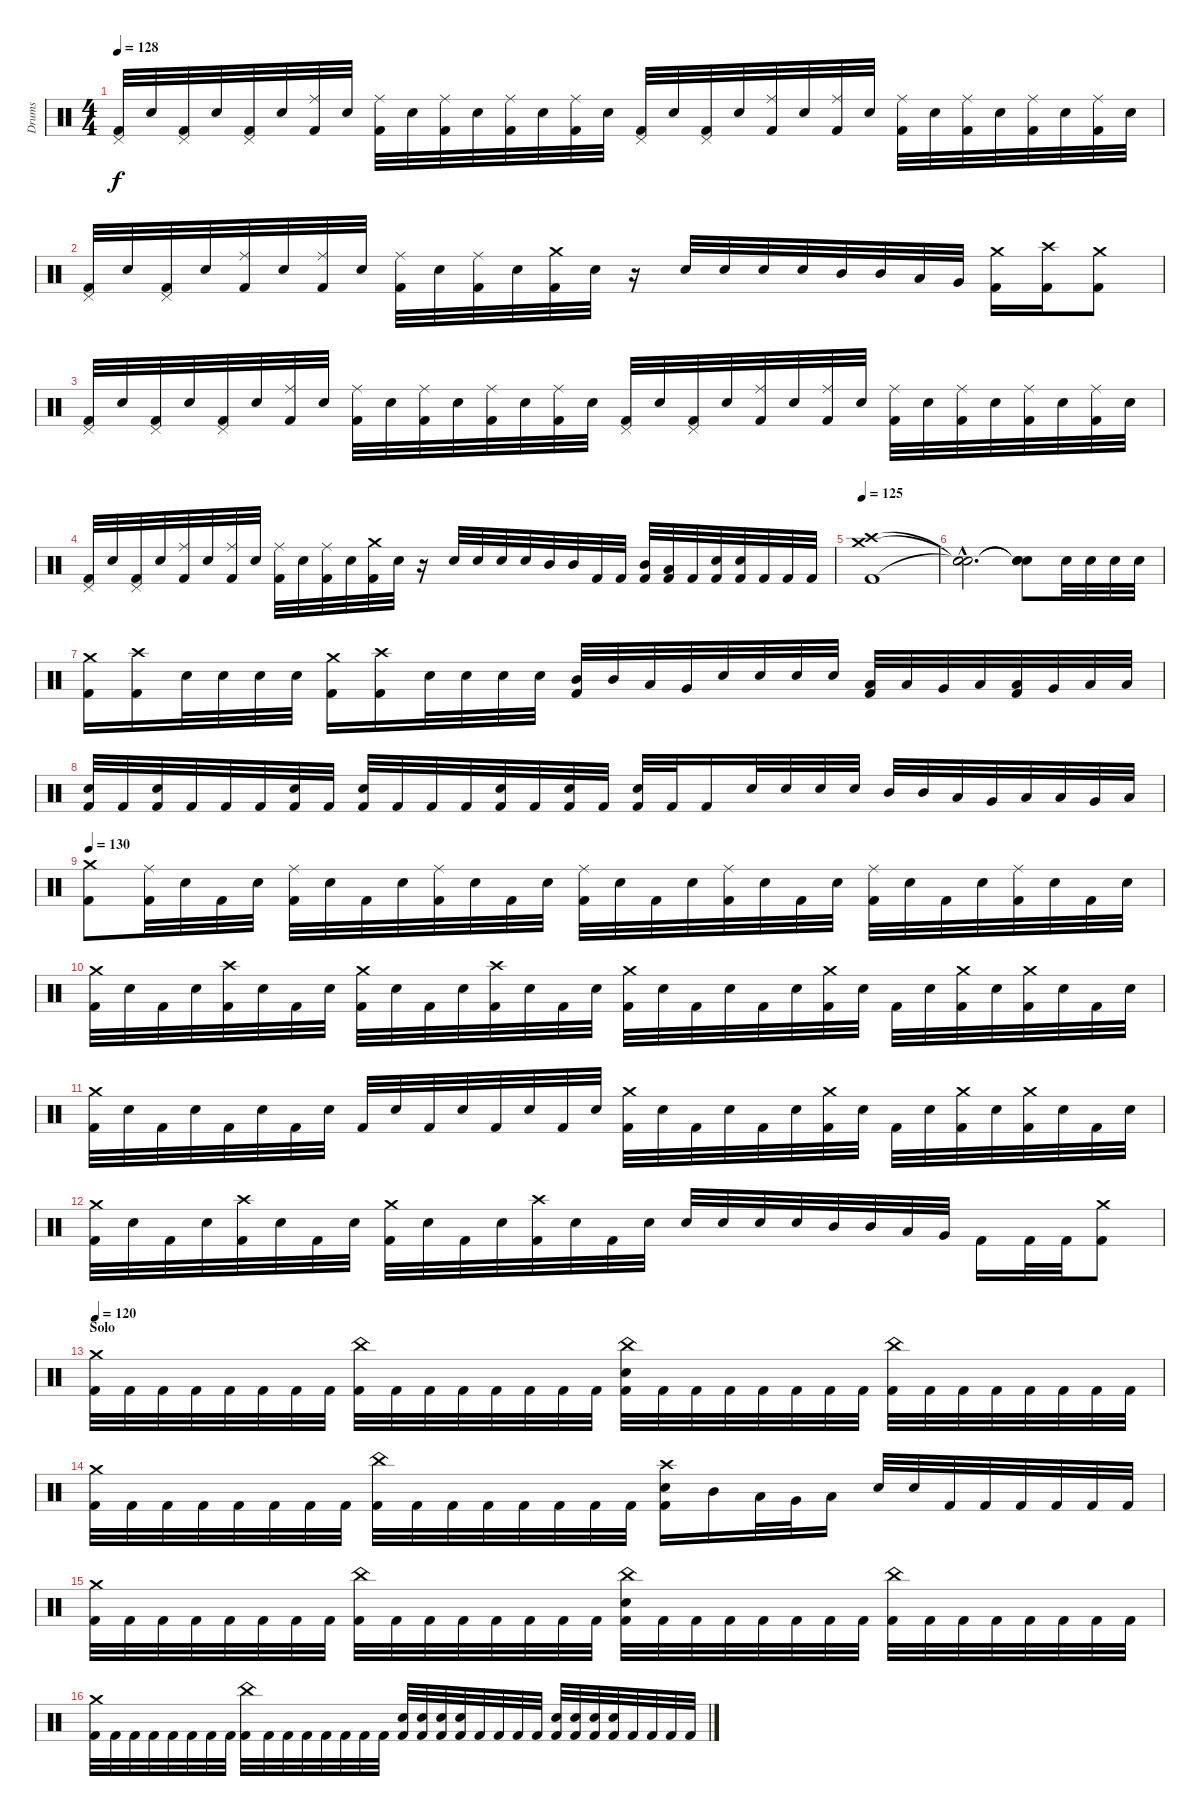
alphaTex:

\track ("Drums" "Drums") {instrument percussion}
\staff {score}
\articulation defaults
\ts (4 4)
\tempo 128
\clef neutral
\ks c
("Pedal Hi-Hat (hit)" "Kick (hit) 2").32{dy f} "Electric Snare (hit)".32 ("Pedal Hi-Hat (hit)" "Kick (hit) 2").32 "Electric Snare (hit)".32 ("Pedal Hi-Hat (hit)" "Kick (hit) 2").32 "Electric Snare (hit)".32 ("Ride (middle)" "Kick (hit) 2").32 "Electric Snare (hit)".32 ("Ride (middle)" "Kick (hit) 2").32 "Electric Snare (hit)".32 ("Ride (middle)" "Kick (hit) 2").32 "Electric Snare (hit)".32 ("Ride (middle)" "Kick (hit) 2").32 "Electric Snare (hit)".32 ("Ride (middle)" "Kick (hit) 2").32 "Electric Snare (hit)".32 ("Pedal Hi-Hat (hit)" "Kick (hit) 2").32 "Electric Snare (hit)".32 ("Pedal Hi-Hat (hit)" "Kick (hit) 2").32 "Electric Snare (hit)".32 ("Ride (middle)" "Kick (hit) 2").32 "Electric Snare (hit)".32 ("Ride (middle)" "Kick (hit) 2").32 "Electric Snare (hit)".32 ("Ride (middle)" "Kick (hit) 2").32 "Electric Snare (hit)".32 ("Ride (middle)" "Kick (hit) 2").32 "Electric Snare (hit)".32 ("Ride (middle)" "Kick (hit) 2").32 "Electric Snare (hit)".32 ("Ride (middle)" "Kick (hit) 2").32 "Electric Snare (hit)".32 |
("Pedal Hi-Hat (hit)" "Kick (hit) 2").32 "Electric Snare (hit)".32 ("Pedal Hi-Hat (hit)" "Kick (hit) 2").32 "Electric Snare (hit)".32 ("Ride (middle)" "Kick (hit) 2").32 "Electric Snare (hit)".32 ("Ride (middle)" "Kick (hit) 2").32 "Electric Snare (hit)".32 ("Ride (middle)" "Kick (hit) 2").32 "Electric Snare (hit)".32 ("Ride (middle)" "Kick (hit) 2").32 "Electric Snare (hit)".32 ("Crash medium (hit)" "Kick (hit) 2").32 "Electric Snare (hit)".32 r.16 "Electric Snare (hit)".32 "Electric Snare (hit)".32 "Electric Snare (hit)".32 "Electric Snare (hit)".32 "Mid Tom (hit)".32 "Mid Tom (hit)".32 "Low Tom (hit)".32 "Very Low Tom (hit)".32 ("Crash medium (hit)" "Kick (hit) 2").16 ("Crash high (hit)" "Kick (hit) 2").16 ("Crash medium (hit)" "Kick (hit) 2").8 |
("Pedal Hi-Hat (hit)" "Kick (hit) 2").32 "Electric Snare (hit)".32 ("Pedal Hi-Hat (hit)" "Kick (hit) 2").32 "Electric Snare (hit)".32 ("Pedal Hi-Hat (hit)" "Kick (hit) 2").32 "Electric Snare (hit)".32 ("Ride (middle)" "Kick (hit) 2").32 "Electric Snare (hit)".32 ("Ride (middle)" "Kick (hit) 2").32 "Electric Snare (hit)".32 ("Ride (middle)" "Kick (hit) 2").32 "Electric Snare (hit)".32 ("Ride (middle)" "Kick (hit) 2").32 "Electric Snare (hit)".32 ("Ride (middle)" "Kick (hit) 2").32 "Electric Snare (hit)".32 ("Pedal Hi-Hat (hit)" "Kick (hit) 2").32 "Electric Snare (hit)".32 ("Pedal Hi-Hat (hit)" "Kick (hit) 2").32 "Electric Snare (hit)".32 ("Ride (middle)" "Kick (hit) 2").32 "Electric Snare (hit)".32 ("Ride (middle)" "Kick (hit) 2").32 "Electric Snare (hit)".32 ("Ride (middle)" "Kick (hit) 2").32 "Electric Snare (hit)".32 ("Ride (middle)" "Kick (hit) 2").32 "Electric Snare (hit)".32 ("Ride (middle)" "Kick (hit) 2").32 "Electric Snare (hit)".32 ("Ride (middle)" "Kick (hit) 2").32 "Electric Snare (hit)".32 |
("Pedal Hi-Hat (hit)" "Kick (hit) 2").32 "Electric Snare (hit)".32 ("Pedal Hi-Hat (hit)" "Kick (hit) 2").32 "Electric Snare (hit)".32 ("Ride (middle)" "Kick (hit) 2").32 "Electric Snare (hit)".32 ("Ride (middle)" "Kick (hit) 2").32 "Electric Snare (hit)".32 ("Ride (middle)" "Kick (hit) 2").32 "Electric Snare (hit)".32 ("Ride (middle)" "Kick (hit) 2").32 "Electric Snare (hit)".32 ("Crash medium (hit)" "Kick (hit) 2").32 "Electric Snare (hit)".32 r.16 "Electric Snare (hit)".32 "Electric Snare (hit)".32 "Electric Snare (hit)".32 "Electric Snare (hit)".32 "Mid Tom (hit)".32 "Mid Tom (hit)".32 "Kick (hit) 2".32 "Kick (hit) 2".32 ("Mid Tom (hit)" "Kick (hit) 2").32 ("Low Tom (hit)" "Kick (hit) 2").32 "Kick (hit) 2".32 ("Electric Snare (hit)" "Kick (hit) 2").32 ("Electric Snare (hit)" "Kick (hit) 2").32 "Kick (hit) 2".32 "Kick (hit) 2".32 "Kick (hit) 2".32 |
\section ("" "")
\tempo 125
("Crash medium (hit)" "Crash high (hit)" "Kick (hit) 2").1 |
("Snare (hit)"{hac t} "Snare (hit)"{hac t} "Snare (hit)"{hac t}).2{d} ("Snare (hit)"{t} "Snare (hit)"{t} "Snare (hit)"{t}).8 "Electric Snare (hit)".32 "Electric Snare (hit)".32 "Electric Snare (hit)".32 "Electric Snare (hit)".32 |
("Crash medium (hit)" "Kick (hit) 2").16 ("Crash high (hit)" "Kick (hit) 2").16 "Electric Snare (hit)".32 "Electric Snare (hit)".32 "Electric Snare (hit)".32 "Electric Snare (hit)".32 ("Crash medium (hit)" "Kick (hit) 2").16 ("Crash high (hit)" "Kick (hit) 2").16 "Electric Snare (hit)".32 "Electric Snare (hit)".32 "Electric Snare (hit)".32 "Electric Snare (hit)".32 ("Mid Tom (hit)" "Kick (hit) 2").32 "Mid Tom (hit)".32 "Low Tom (hit)".32 "Very Low Tom (hit)".32 "Electric Snare (hit)".32 "Electric Snare (hit)".32 "Electric Snare (hit)".32 "Electric Snare (hit)".32 ("Low Tom (hit)" "Kick (hit) 2").32 "Low Tom (hit)".32 "Very Low Tom (hit)".32 "Low Floor Tom (hit)".32 ("Low Tom (hit)" "Kick (hit) 2").32 "Very Low Tom (hit)".32 "Low Floor Tom (hit)".32 "Low Floor Tom (hit)".32 |
("Electric Snare (hit)" "Kick (hit) 2").32 "Kick (hit) 2".32 ("Electric Snare (hit)" "Kick (hit) 2").32 "Kick (hit) 2".32 "Kick (hit) 2".32 "Kick (hit) 2".32 ("Electric Snare (hit)" "Kick (hit) 2").32 "Kick (hit) 2".32 ("Electric Snare (hit)" "Kick (hit) 2").32 "Kick (hit) 2".32 "Kick (hit) 2".32 "Kick (hit) 2".32 ("Electric Snare (hit)" "Kick (hit) 2").32 "Kick (hit) 2".32 ("Electric Snare (hit)" "Kick (hit) 2").32 "Kick (hit) 2".32 ("Electric Snare (hit)" "Kick (hit) 2").32 "Kick (hit) 2".32 "Kick (hit) 2".16 "Electric Snare (hit)".32 "Electric Snare (hit)".32 "Electric Snare (hit)".32 "Electric Snare (hit)".32 "Mid Tom (hit)".32 "Mid Tom (hit)".32 "Low Tom (hit)".32 "Very Low Tom (hit)".32 "Low Tom (hit)".32 "Low Tom (hit)".32 "Very Low Tom (hit)".32 "Low Floor Tom (hit)".32 |
\section ("" "")
\tempo 130
("Crash medium (hit)" "Kick (hit) 2").8 ("Ride (middle)" "Kick (hit) 2").32 "Electric Snare (hit)".32 "Kick (hit) 2".32 "Electric Snare (hit)".32 ("Ride (middle)" "Kick (hit) 2").32 "Electric Snare (hit)".32 "Kick (hit) 2".32 "Electric Snare (hit)".32 ("Ride (middle)" "Kick (hit) 2").32 "Electric Snare (hit)".32 "Kick (hit) 2".32 "Electric Snare (hit)".32 ("Ride (middle)" "Kick (hit) 2").32 "Electric Snare (hit)".32 "Kick (hit) 2".32 "Electric Snare (hit)".32 ("Ride (middle)" "Kick (hit) 2").32 "Electric Snare (hit)".32 "Kick (hit) 2".32 "Electric Snare (hit)".32 ("Ride (middle)" "Kick (hit) 2").32 "Electric Snare (hit)".32 "Kick (hit) 2".32 "Electric Snare (hit)".32 ("Ride (middle)" "Kick (hit) 2").32 "Electric Snare (hit)".32 "Kick (hit) 2".32 "Electric Snare (hit)".32 |
("Crash medium (hit)" "Kick (hit) 2").32 "Electric Snare (hit)".32 "Kick (hit) 2".32 "Electric Snare (hit)".32 ("Crash high (hit)" "Kick (hit) 2").32 "Electric Snare (hit)".32 "Kick (hit) 2".32 "Electric Snare (hit)".32 ("Crash medium (hit)" "Kick (hit) 2").32 "Electric Snare (hit)".32 "Kick (hit) 2".32 "Electric Snare (hit)".32 ("Crash high (hit)" "Kick (hit) 2").32 "Electric Snare (hit)".32 "Kick (hit) 2".32 "Electric Snare (hit)".32 ("Crash medium (hit)" "Kick (hit) 2").32 "Electric Snare (hit)".32 "Kick (hit) 2".32 "Electric Snare (hit)".32 "Kick (hit) 2".32 "Electric Snare (hit)".32 ("Crash medium (hit)" "Kick (hit) 2").32 "Electric Snare (hit)".32 "Kick (hit) 2".32 "Electric Snare (hit)".32 ("Crash medium (hit)" "Kick (hit) 2").32 "Electric Snare (hit)".32 ("Crash medium (hit)" "Kick (hit) 2").32 "Electric Snare (hit)".32 "Kick (hit) 2".32 "Electric Snare (hit)".32 |
("Crash medium (hit)" "Kick (hit) 2").32 "Electric Snare (hit)".32 "Kick (hit) 2".32 "Electric Snare (hit)".32 "Kick (hit) 2".32 "Electric Snare (hit)".32 "Kick (hit) 2".32 "Electric Snare (hit)".32 "Kick (hit) 2".32 "Electric Snare (hit)".32 "Kick (hit) 2".32 "Electric Snare (hit)".32 "Kick (hit) 2".32 "Electric Snare (hit)".32 "Kick (hit) 2".32 "Electric Snare (hit)".32 ("Crash medium (hit)" "Kick (hit) 2").32 "Electric Snare (hit)".32 "Kick (hit) 2".32 "Electric Snare (hit)".32 "Kick (hit) 2".32 "Electric Snare (hit)".32 ("Crash medium (hit)" "Kick (hit) 2").32 "Electric Snare (hit)".32 "Kick (hit) 2".32 "Electric Snare (hit)".32 ("Crash medium (hit)" "Kick (hit) 2").32 "Electric Snare (hit)".32 ("Crash medium (hit)" "Kick (hit) 2").32 "Electric Snare (hit)".32 "Kick (hit) 2".32 "Electric Snare (hit)".32 |
("Crash medium (hit)" "Kick (hit) 2").32 "Electric Snare (hit)".32 "Kick (hit) 2".32 "Electric Snare (hit)".32 ("Crash high (hit)" "Kick (hit) 2").32 "Electric Snare (hit)".32 "Kick (hit) 2".32 "Electric Snare (hit)".32 ("Crash medium (hit)" "Kick (hit) 2").32 "Electric Snare (hit)".32 "Kick (hit) 2".32 "Electric Snare (hit)".32 ("Crash high (hit)" "Kick (hit) 2").32 "Electric Snare (hit)".32 "Kick (hit) 2".32 "Electric Snare (hit)".32 "Electric Snare (hit)".32 "Electric Snare (hit)".32 "Electric Snare (hit)".32 "Electric Snare (hit)".32 "Mid Tom (hit)".32 "Mid Tom (hit)".32 "Low Tom (hit)".32 "Very Low Tom (hit)".32 "Kick (hit) 2".16 "Kick (hit) 2".32 "Kick (hit) 2".32 ("Crash medium (hit)" "Kick (hit) 2").8 |
\section ("" "Solo")
\tempo 120
("Crash medium (hit)" "Kick (hit) 2").32 "Kick (hit) 2".32 "Kick (hit) 2".32 "Kick (hit) 2".32 "Kick (hit) 2".32 "Kick (hit) 2".32 "Kick (hit) 2".32 "Kick (hit) 2".32 ("China (hit)" "Kick (hit) 2").32 "Kick (hit) 2".32 "Kick (hit) 2".32 "Kick (hit) 2".32 "Kick (hit) 2".32 "Kick (hit) 2".32 "Kick (hit) 2".32 "Kick (hit) 2".32 ("China (hit)" "Electric Snare (hit)" "Kick (hit) 2").32 "Kick (hit) 2".32 "Kick (hit) 2".32 "Kick (hit) 2".32 "Kick (hit) 2".32 "Kick (hit) 2".32 "Kick (hit) 2".32 "Kick (hit) 2".32 ("China (hit)" "Kick (hit) 2").32 "Kick (hit) 2".32 "Kick (hit) 2".32 "Kick (hit) 2".32 "Kick (hit) 2".32 "Kick (hit) 2".32 "Kick (hit) 2".32 "Kick (hit) 2".32 |
("Crash medium (hit)" "Kick (hit) 2").32 "Kick (hit) 2".32 "Kick (hit) 2".32 "Kick (hit) 2".32 "Kick (hit) 2".32 "Kick (hit) 2".32 "Kick (hit) 2".32 "Kick (hit) 2".32 ("China (hit)" "Kick (hit) 2").32 "Kick (hit) 2".32 "Kick (hit) 2".32 "Kick (hit) 2".32 "Kick (hit) 2".32 "Kick (hit) 2".32 "Kick (hit) 2".32 "Kick (hit) 2".32 ("Crash high (hit)" "Electric Snare (hit)" "Kick (hit) 2").16 "Mid Tom (hit)".16 "Low Tom (hit)".32 "Very Low Tom (hit)".32 "Low Floor Tom (hit)".16 "Electric Snare (hit)".32 "Electric Snare (hit)".32 "Kick (hit) 2".32 "Kick (hit) 2".32 "Kick (hit) 2".32 "Kick (hit) 2".32 "Kick (hit) 2".32 "Kick (hit) 2".32 |
("Crash medium (hit)" "Kick (hit) 2").32 "Kick (hit) 2".32 "Kick (hit) 2".32 "Kick (hit) 2".32 "Kick (hit) 2".32 "Kick (hit) 2".32 "Kick (hit) 2".32 "Kick (hit) 2".32 ("China (hit)" "Kick (hit) 2").32 "Kick (hit) 2".32 "Kick (hit) 2".32 "Kick (hit) 2".32 "Kick (hit) 2".32 "Kick (hit) 2".32 "Kick (hit) 2".32 "Kick (hit) 2".32 ("China (hit)" "Electric Snare (hit)" "Kick (hit) 2").32 "Kick (hit) 2".32 "Kick (hit) 2".32 "Kick (hit) 2".32 "Kick (hit) 2".32 "Kick (hit) 2".32 "Kick (hit) 2".32 "Kick (hit) 2".32 ("China (hit)" "Kick (hit) 2").32 "Kick (hit) 2".32 "Kick (hit) 2".32 "Kick (hit) 2".32 "Kick (hit) 2".32 "Kick (hit) 2".32 "Kick (hit) 2".32 "Kick (hit) 2".32 |
("Crash medium (hit)" "Kick (hit) 2").32 "Kick (hit) 2".32 "Kick (hit) 2".32 "Kick (hit) 2".32 "Kick (hit) 2".32 "Kick (hit) 2".32 "Kick (hit) 2".32 "Kick (hit) 2".32 ("China (hit)" "Kick (hit) 2").32 "Kick (hit) 2".32 "Kick (hit) 2".32 "Kick (hit) 2".32 "Kick (hit) 2".32 "Kick (hit) 2".32 "Kick (hit) 2".32 "Kick (hit) 2".32 ("Electric Snare (hit)" "Kick (hit) 2").32 ("Electric Snare (hit)" "Kick (hit) 2").32 ("Electric Snare (hit)" "Kick (hit) 2").32 ("Electric Snare (hit)" "Kick (hit) 2").32 "Kick (hit) 2".32 "Kick (hit) 2".32 "Kick (hit) 2".32 "Kick (hit) 2".32 ("Electric Snare (hit)" "Kick (hit) 2").32 ("Electric Snare (hit)" "Kick (hit) 2").32 ("Electric Snare (hit)" "Kick (hit) 2").32 ("Electric Snare (hit)" "Kick (hit) 2").32 "Kick (hit) 2".32 "Kick (hit) 2".32 "Kick (hit) 2".32 "Kick (hit) 2".32
